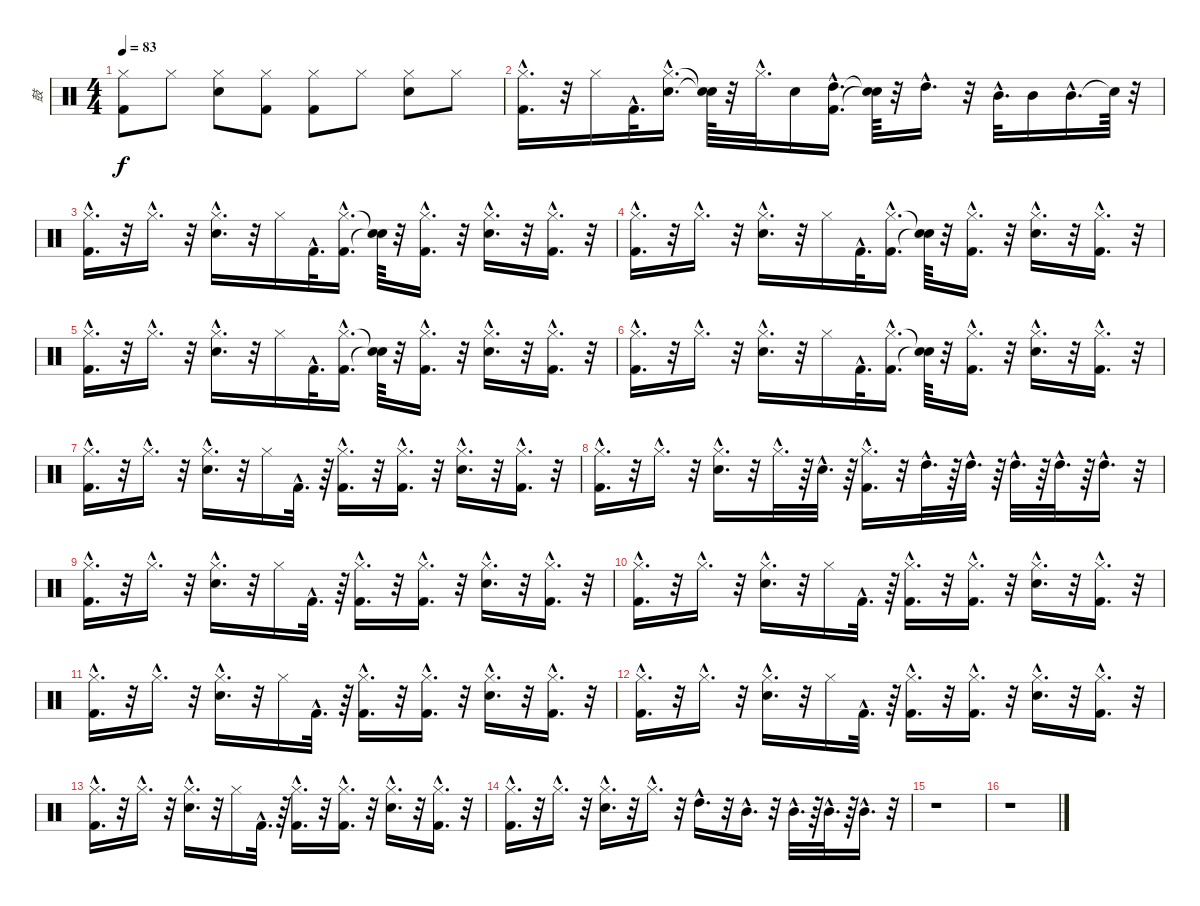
\track ("鼓" "鼓") {instrument percussion}
\staff {score}
\articulation defaults
\ts (4 4)
\tempo 83
\clef neutral
\ks c
("Kick (hit) 2" "Hi-Hat (closed)").8{dy f} "Hi-Hat (closed)".8 ("Hi-Hat (closed)" "Snare (hit) 2").8 ("Hi-Hat (closed)" "Kick (hit) 2").8 ("Kick (hit) 2" "Hi-Hat (closed)").8 "Hi-Hat (closed)".8 ("Hi-Hat (closed)" "Snare (hit) 2").8 "Hi-Hat (closed)".8 |
("Hi-Hat (closed)"{hac} "Kick (hit) 2"{hac}).16{d} r.32 "Hi-Hat (closed)".16 "Kick (hit) 2"{hac}.32{d} ("Snare (hit) 2"{hac} "Hi-Hat (closed)"{hac}).16{d} ("Snare (hit)"{t} "Snare (hit)"{t}).64 r.32 "Hi-Hat (closed)"{hac}.32{d} "Snare (hit) 2".16 ("Kick (hit) 2"{hac} "High Tom (hit)"{hac}).16{d} ("Snare (hit)"{t} "Snare (hit)"{t}).64 r.32 "High Tom (hit)"{hac}.16{d} r.32 "Mid Tom (hit)"{hac}.32{d} "Mid Tom (hit)".16 "Mid Tom (hit)"{hac}.16{d} "Snare (hit)"{t}.64 r.32 |
("Kick (hit) 2"{hac} "Hi-Hat (closed)"{hac}).16{d} r.32 "Hi-Hat (closed)"{hac}.16{d} r.32 ("Hi-Hat (closed)"{hac} "Snare (hit) 2"{hac}).16{d} r.32 "Hi-Hat (closed)".16 "Kick (hit) 2"{hac}.32{d} ("Hi-Hat (closed)"{hac} "Kick (hit) 2"{hac}).16{d} ("Snare (hit)"{t} "Snare (hit)"{t}).64 r.32 ("Hi-Hat (closed)"{hac} "Kick (hit) 2"{hac}).16{d} r.32 ("Snare (hit) 2"{hac} "Hi-Hat (closed)"{hac}).16{d} r.32 ("Kick (hit) 2"{hac} "Hi-Hat (closed)"{hac}).16{d} r.32 |
("Kick (hit) 2"{hac} "Hi-Hat (closed)"{hac}).16{d} r.32 "Hi-Hat (closed)"{hac}.16{d} r.32 ("Snare (hit) 2"{hac} "Hi-Hat (closed)"{hac}).16{d} r.32 "Hi-Hat (closed)".16 "Kick (hit) 2"{hac}.32{d} ("Hi-Hat (closed)"{hac} "Kick (hit) 2"{hac}).16{d} ("Snare (hit)"{t} "Snare (hit)"{t}).64 r.32 ("Hi-Hat (closed)"{hac} "Kick (hit) 2"{hac}).16{d} r.32 ("Snare (hit) 2"{hac} "Hi-Hat (closed)"{hac}).16{d} r.32 ("Hi-Hat (closed)"{hac} "Kick (hit) 2"{hac}).16{d} r.32 |
("Kick (hit) 2"{hac} "Hi-Hat (closed)"{hac}).16{d} r.32 "Hi-Hat (closed)"{hac}.16{d} r.32 ("Snare (hit) 2"{hac} "Hi-Hat (closed)"{hac}).16{d} r.32 "Hi-Hat (closed)".16 "Kick (hit) 2"{hac}.32{d} ("Hi-Hat (closed)"{hac} "Kick (hit) 2"{hac}).16{d} ("Snare (hit)"{t} "Snare (hit)"{t}).64 r.32 ("Hi-Hat (closed)"{hac} "Kick (hit) 2"{hac}).16{d} r.32 ("Snare (hit) 2"{hac} "Hi-Hat (closed)"{hac}).16{d} r.32 ("Kick (hit) 2"{hac} "Hi-Hat (closed)"{hac}).16{d} r.32 |
("Hi-Hat (closed)"{hac} "Kick (hit) 2"{hac}).16{d} r.32 "Hi-Hat (closed)"{hac}.16{d} r.32 ("Snare (hit) 2"{hac} "Hi-Hat (closed)"{hac}).16{d} r.32 "Hi-Hat (closed)".16 "Kick (hit) 2"{hac}.32{d} ("Kick (hit) 2"{hac} "Hi-Hat (closed)"{hac}).16{d} ("Snare (hit)"{t} "Snare (hit)"{t}).64 r.32 ("Hi-Hat (closed)"{hac} "Kick (hit) 2"{hac}).16{d} r.32 ("Snare (hit) 2"{hac} "Hi-Hat (closed)"{hac}).16{d} r.32 ("Kick (hit) 2"{hac} "Hi-Hat (closed)"{hac}).16{d} r.32 |
("Kick (hit) 2"{hac} "Hi-Hat (closed)"{hac}).16{d} r.32 "Hi-Hat (closed)"{hac}.16{d} r.32 ("Hi-Hat (closed)"{hac} "Snare (hit) 2"{hac}).16{d} r.32 "Hi-Hat (closed)".16 "Kick (hit) 2"{hac}.32{d} r.64 ("Hi-Hat (closed)"{hac} "Kick (hit) 2"{hac}).16{d} r.32 ("Hi-Hat (closed)"{hac} "Kick (hit) 2"{hac}).16{d} r.32 ("Snare (hit) 2"{hac} "Hi-Hat (closed)"{hac}).16{d} r.32 ("Kick (hit) 2"{hac} "Hi-Hat (closed)"{hac}).16{d} r.32 |
("Kick (hit) 2"{hac} "Hi-Hat (closed)"{hac}).16{d} r.32 "Hi-Hat (closed)"{hac}.16{d} r.32 ("Snare (hit) 2"{hac} "Hi-Hat (closed)"{hac}).16{d} r.32 "Hi-Hat (closed)"{hac}.32{d} r.64 "Snare (hit) 2"{hac}.32{d} r.64 ("Kick (hit) 2"{hac} "Hi-Hat (closed)"{hac}).16{d} r.32 "High Tom (hit)"{hac}.32{d} r.64 "High Tom (hit)"{hac}.32{d} r.64 "High Tom (hit)"{hac}.32{d} r.64 "High Tom (hit)"{hac}.32{d} r.64 "High Tom (hit)"{hac}.16{d} r.32 |
("Hi-Hat (closed)"{hac} "Kick (hit) 2"{hac}).16{d} r.32 "Hi-Hat (closed)"{hac}.16{d} r.32 ("Snare (hit) 2"{hac} "Hi-Hat (closed)"{hac}).16{d} r.32 "Hi-Hat (closed)".16 "Kick (hit) 2"{hac}.32{d} r.64 ("Hi-Hat (closed)"{hac} "Kick (hit) 2"{hac}).16{d} r.32 ("Hi-Hat (closed)"{hac} "Kick (hit) 2"{hac}).16{d} r.32 ("Snare (hit) 2"{hac} "Hi-Hat (closed)"{hac}).16{d} r.32 ("Hi-Hat (closed)"{hac} "Kick (hit) 2"{hac}).16{d} r.32 |
("Hi-Hat (closed)"{hac} "Kick (hit) 2"{hac}).16{d} r.32 "Hi-Hat (closed)"{hac}.16{d} r.32 ("Hi-Hat (closed)"{hac} "Snare (hit) 2"{hac}).16{d} r.32 "Hi-Hat (closed)".16 "Kick (hit) 2"{hac}.32{d} r.64 ("Hi-Hat (closed)"{hac} "Kick (hit) 2"{hac}).16{d} r.32 ("Hi-Hat (closed)"{hac} "Kick (hit) 2"{hac}).16{d} r.32 ("Hi-Hat (closed)"{hac} "Snare (hit) 2"{hac}).16{d} r.32 ("Kick (hit) 2"{hac} "Hi-Hat (closed)"{hac}).16{d} r.32 |
("Hi-Hat (closed)"{hac} "Kick (hit) 2"{hac}).16{d} r.32 "Hi-Hat (closed)"{hac}.16{d} r.32 ("Snare (hit) 2"{hac} "Hi-Hat (closed)"{hac}).16{d} r.32 "Hi-Hat (closed)".16 "Kick (hit) 2"{hac}.32{d} r.64 ("Hi-Hat (closed)"{hac} "Kick (hit) 2"{hac}).16{d} r.32 ("Hi-Hat (closed)"{hac} "Kick (hit) 2"{hac}).16{d} r.32 ("Hi-Hat (closed)"{hac} "Snare (hit) 2"{hac}).16{d} r.32 ("Hi-Hat (closed)"{hac} "Kick (hit) 2"{hac}).16{d} r.32 |
("Hi-Hat (closed)"{hac} "Kick (hit) 2"{hac}).16{d} r.32 "Hi-Hat (closed)"{hac}.16{d} r.32 ("Snare (hit) 2"{hac} "Hi-Hat (closed)"{hac}).16{d} r.32 "Hi-Hat (closed)".16 "Kick (hit) 2"{hac}.32{d} r.64 ("Hi-Hat (closed)"{hac} "Kick (hit) 2"{hac}).16{d} r.32 ("Hi-Hat (closed)"{hac} "Kick (hit) 2"{hac}).16{d} r.32 ("Hi-Hat (closed)"{hac} "Snare (hit) 2"{hac}).16{d} r.32 ("Kick (hit) 2"{hac} "Hi-Hat (closed)"{hac}).16{d} r.32 |
("Kick (hit) 2"{hac} "Hi-Hat (closed)"{hac}).16{d} r.32 "Hi-Hat (closed)"{hac}.16{d} r.32 ("Snare (hit) 2"{hac} "Hi-Hat (closed)"{hac}).16{d} r.32 "Hi-Hat (closed)".16 "Kick (hit) 2"{hac}.32{d} r.64 ("Hi-Hat (closed)"{hac} "Kick (hit) 2"{hac}).16{d} r.32 ("Kick (hit) 2"{hac} "Hi-Hat (closed)"{hac}).16{d} r.32 ("Hi-Hat (closed)"{hac} "Snare (hit) 2"{hac}).16{d} r.32 ("Hi-Hat (closed)"{hac} "Kick (hit) 2"{hac}).16{d} r.32 |
("Kick (hit) 2"{hac} "Hi-Hat (closed)"{hac}).16{d} r.32 "Hi-Hat (closed)"{hac}.16{d} r.32 ("Snare (hit) 2"{hac} "Hi-Hat (closed)"{hac}).16{d} r.32 "Hi-Hat (closed)"{hac}.16{d} r.32 "High Tom (hit)"{hac}.16{d} r.32 "Mid Tom (hit)"{hac}.16{d} r.32 "Mid Tom (hit)"{hac}.32{d} r.64 "Mid Tom (hit)"{hac}.32{d} r.64 "Mid Tom (hit)"{hac}.16{d} r.32 |
r.1 |
r.1
